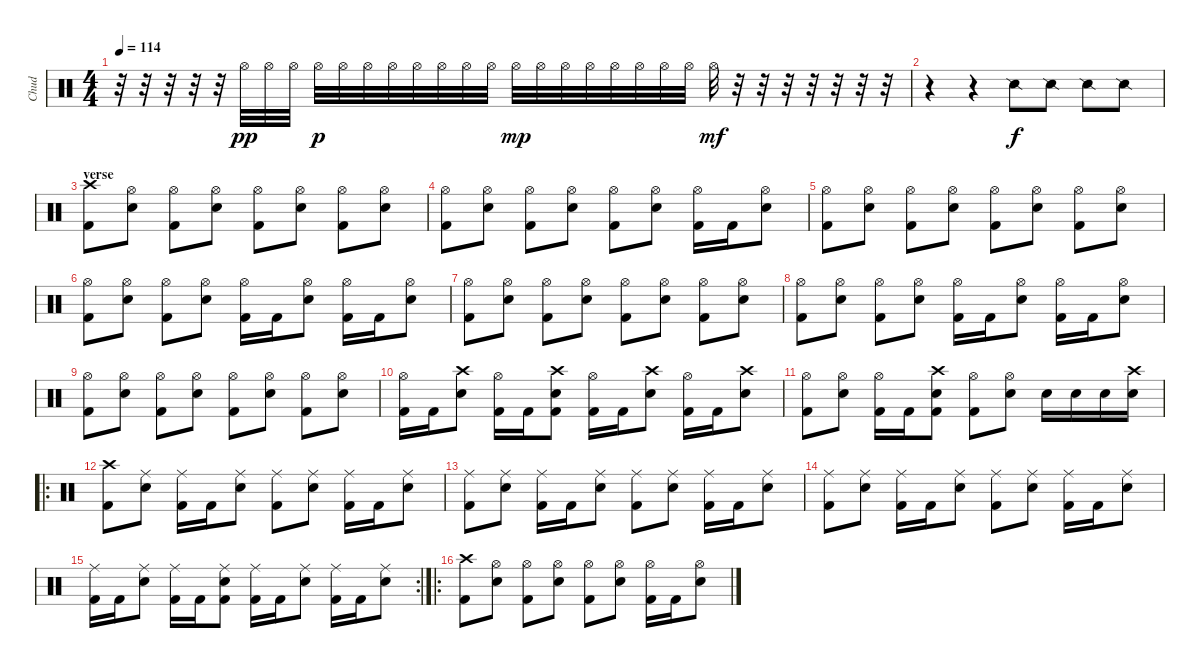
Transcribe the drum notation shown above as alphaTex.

\track ("Chud" "Chud") {instrument percussion}
\staff {score}
\articulation defaults
\ts (4 4)
\tempo 114
\clef neutral
\ks c
r.32{dy f} r.32 r.32 r.32 r.32 "Hi-Hat (open)".32{dy pp} "Hi-Hat (open)".32 "Hi-Hat (open)".32 "Hi-Hat (open)".32{dy p} "Hi-Hat (open)".32 "Hi-Hat (open)".32 "Hi-Hat (open)".32 "Hi-Hat (open)".32 "Hi-Hat (open)".32 "Hi-Hat (open)".32 "Hi-Hat (open)".32 "Hi-Hat (open)".32{dy mp} "Hi-Hat (open)".32 "Hi-Hat (open)".32 "Hi-Hat (open)".32 "Hi-Hat (open)".32 "Hi-Hat (open)".32 "Hi-Hat (open)".32 "Hi-Hat (open)".32 "Hi-Hat (open)".32{dy mf} r.32 r.32 r.32 r.32 r.32 r.32 r.32 |
r.4 r.4 "Snare (side stick) 2".8{dy f} "Snare (side stick) 2".8 "Snare (side stick) 2".8 "Snare (side stick) 2".8 |
\section ("" "verse")
("Crash high (hit)" "Kick (hit) 2").8 ("Hi-Hat (open)" "Electric Snare (hit)").8 ("Hi-Hat (open)" "Kick (hit) 2").8 ("Hi-Hat (open)" "Electric Snare (hit)").8 ("Hi-Hat (open)" "Kick (hit) 2").8 ("Hi-Hat (open)" "Electric Snare (hit)").8 ("Hi-Hat (open)" "Kick (hit) 2").8 ("Hi-Hat (open)" "Electric Snare (hit)").8 |
("Hi-Hat (open)" "Kick (hit) 2").8 ("Hi-Hat (open)" "Electric Snare (hit)").8 ("Hi-Hat (open)" "Kick (hit) 2").8 ("Hi-Hat (open)" "Electric Snare (hit)").8 ("Hi-Hat (open)" "Kick (hit) 2").8 ("Hi-Hat (open)" "Electric Snare (hit)").8 ("Hi-Hat (open)" "Kick (hit) 2").16 "Kick (hit) 2".16 ("Hi-Hat (open)" "Electric Snare (hit)").8 |
("Hi-Hat (open)" "Kick (hit) 2").8 ("Hi-Hat (open)" "Electric Snare (hit)").8 ("Hi-Hat (open)" "Kick (hit) 2").8 ("Hi-Hat (open)" "Electric Snare (hit)").8 ("Hi-Hat (open)" "Kick (hit) 2").8 ("Hi-Hat (open)" "Electric Snare (hit)").8 ("Hi-Hat (open)" "Kick (hit) 2").8 ("Hi-Hat (open)" "Electric Snare (hit)").8 |
("Hi-Hat (open)" "Kick (hit) 2").8 ("Hi-Hat (open)" "Electric Snare (hit)").8 ("Hi-Hat (open)" "Kick (hit) 2").8 ("Hi-Hat (open)" "Electric Snare (hit)").8 ("Hi-Hat (open)" "Kick (hit) 2").16 "Kick (hit) 2".16 ("Hi-Hat (open)" "Electric Snare (hit)").8 ("Hi-Hat (open)" "Kick (hit) 2").16 "Kick (hit) 2".16 ("Hi-Hat (open)" "Electric Snare (hit)").8 |
("Hi-Hat (open)" "Kick (hit) 2").8 ("Hi-Hat (open)" "Electric Snare (hit)").8 ("Hi-Hat (open)" "Kick (hit) 2").8 ("Hi-Hat (open)" "Electric Snare (hit)").8 ("Hi-Hat (open)" "Kick (hit) 2").8 ("Hi-Hat (open)" "Electric Snare (hit)").8 ("Hi-Hat (open)" "Kick (hit) 2").8 ("Hi-Hat (open)" "Electric Snare (hit)").8 |
("Hi-Hat (open)" "Kick (hit) 2").8 ("Hi-Hat (open)" "Electric Snare (hit)").8 ("Hi-Hat (open)" "Kick (hit) 2").8 ("Hi-Hat (open)" "Electric Snare (hit)").8 ("Hi-Hat (open)" "Kick (hit) 2").16 "Kick (hit) 2".16 ("Hi-Hat (open)" "Electric Snare (hit)").8 ("Hi-Hat (open)" "Kick (hit) 2").16 "Kick (hit) 2".16 ("Hi-Hat (open)" "Electric Snare (hit)").8 |
("Hi-Hat (open)" "Kick (hit) 2").8 ("Hi-Hat (open)" "Electric Snare (hit)").8 ("Hi-Hat (open)" "Kick (hit) 2").8 ("Hi-Hat (open)" "Electric Snare (hit)").8 ("Hi-Hat (open)" "Kick (hit) 2").8 ("Hi-Hat (open)" "Electric Snare (hit)").8 ("Hi-Hat (open)" "Kick (hit) 2").8 ("Hi-Hat (open)" "Electric Snare (hit)").8 |
("Hi-Hat (open)" "Kick (hit) 2").16 "Kick (hit) 2".16 ("Crash high (hit)" "Electric Snare (hit)").8 ("Hi-Hat (open)" "Kick (hit) 2").16 "Kick (hit) 2".16 ("Crash high (hit)" "Electric Snare (hit)" "Kick (hit) 2").8 ("Hi-Hat (open)" "Kick (hit) 2").16 "Kick (hit) 2".16 ("Crash high (hit)" "Electric Snare (hit)").8 ("Hi-Hat (open)" "Kick (hit) 2").16 "Kick (hit) 2".16 ("Crash high (hit)" "Electric Snare (hit)").8 |
("Hi-Hat (open)" "Kick (hit) 2").8 ("Hi-Hat (open)" "Electric Snare (hit)").8 ("Hi-Hat (open)" "Kick (hit) 2").16 "Kick (hit) 2".16 ("Crash high (hit)" "Electric Snare (hit)" "Kick (hit) 2").8 ("Hi-Hat (open)" "Kick (hit) 2").8 ("Hi-Hat (open)" "Electric Snare (hit)").8 "Electric Snare (hit)".16 "Electric Snare (hit)".16 "Electric Snare (hit)".16 ("Crash high (hit)" "Electric Snare (hit)").16 |
\ro
("Crash high (hit)" "Kick (hit) 2").8 ("Ride (middle)" "Electric Snare (hit)").8 ("Ride (middle)" "Kick (hit) 2").16 "Kick (hit) 2".16 ("Ride (middle)" "Electric Snare (hit)").8 ("Ride (middle)" "Kick (hit) 2").8 ("Ride (middle)" "Electric Snare (hit)").8 ("Ride (middle)" "Kick (hit) 2").16 "Kick (hit) 2".16 ("Ride (middle)" "Electric Snare (hit)").8 |
("Ride (middle)" "Kick (hit) 2").8 ("Ride (middle)" "Electric Snare (hit)").8 ("Ride (middle)" "Kick (hit) 2").16 "Kick (hit) 2".16 ("Ride (middle)" "Electric Snare (hit)").8 ("Ride (middle)" "Kick (hit) 2").8 ("Ride (middle)" "Electric Snare (hit)").8 ("Ride (middle)" "Kick (hit) 2").16 "Kick (hit) 2".16 ("Ride (middle)" "Electric Snare (hit)").8 |
("Ride (middle)" "Kick (hit) 2").8 ("Ride (middle)" "Electric Snare (hit)").8 ("Ride (middle)" "Kick (hit) 2").16 "Kick (hit) 2".16 ("Ride (middle)" "Electric Snare (hit)").8 ("Ride (middle)" "Kick (hit) 2").8 ("Ride (middle)" "Electric Snare (hit)").8 ("Ride (middle)" "Kick (hit) 2").16 "Kick (hit) 2".16 ("Ride (middle)" "Electric Snare (hit)").8 |
\rc 2
("Ride (middle)" "Kick (hit) 2").16 "Kick (hit) 2".16 ("Ride (middle)" "Electric Snare (hit)").8 ("Ride (middle)" "Kick (hit) 2").16 "Kick (hit) 2".16 ("Ride (middle)" "Electric Snare (hit)" "Kick (hit) 2").8 ("Ride (middle)" "Kick (hit) 2").16 "Kick (hit) 2".16 ("Ride (middle)" "Electric Snare (hit)").8 ("Ride (middle)" "Kick (hit) 2").16 "Kick (hit) 2".16 ("Ride (middle)" "Electric Snare (hit)").8 |
\ro
("Crash high (hit)" "Kick (hit) 2").8 ("Hi-Hat (open)" "Electric Snare (hit)").8 ("Hi-Hat (open)" "Kick (hit) 2").8 ("Hi-Hat (open)" "Electric Snare (hit)").8 ("Hi-Hat (open)" "Kick (hit) 2").8 ("Hi-Hat (open)" "Electric Snare (hit)").8 ("Hi-Hat (open)" "Kick (hit) 2").16 "Kick (hit) 2".16 ("Hi-Hat (open)" "Electric Snare (hit)").8
